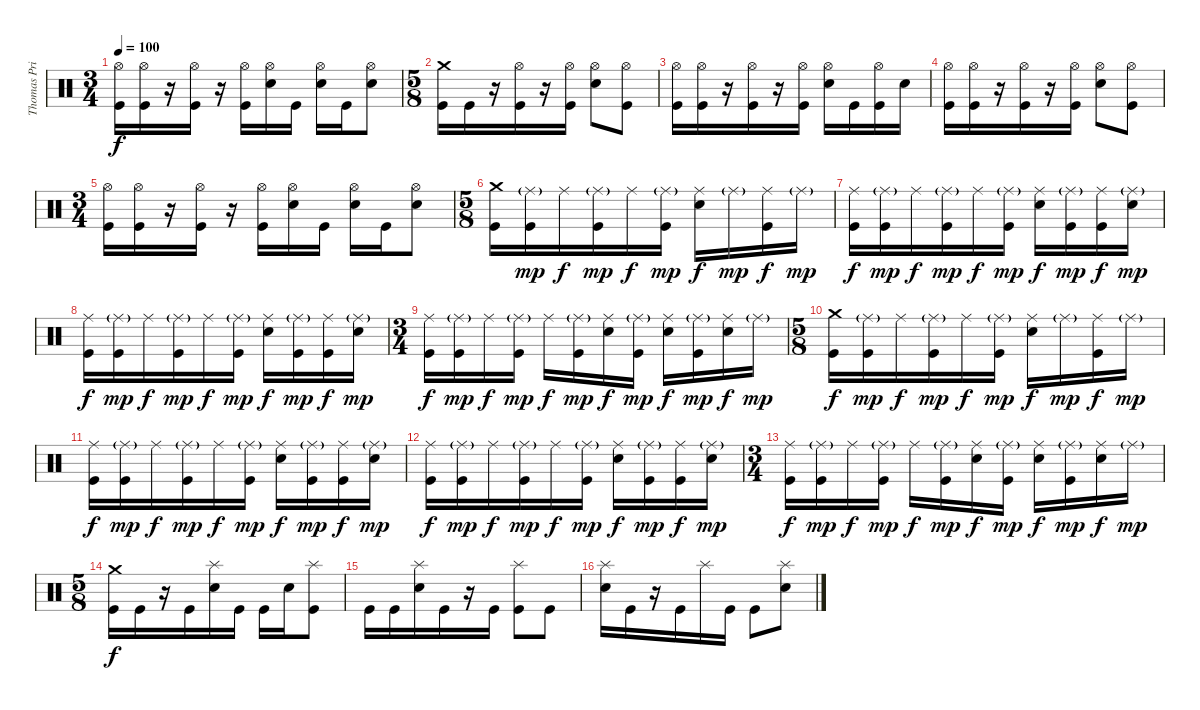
\track ("Thomas Pridgen [Drum]" "Thomas Pri") {instrument percussion}
\staff {score}
\articulation defaults
\ts (3 4)
\tempo 100
\clef neutral
\ks c
("Hi-Hat (open)" "Kick (hit)").16{dy f} ("Hi-Hat (open)" "Kick (hit)").16 r.16 ("Hi-Hat (open)" "Kick (hit)").16 r.16 ("Hi-Hat (open)" "Kick (hit)").16 ("Hi-Hat (open)" "Electric Snare (hit)").16 "Kick (hit)".16 ("Hi-Hat (open)" "Electric Snare (hit)").16 "Kick (hit)".16 ("Hi-Hat (open)" "Electric Snare (hit)").8 |
\ts (5 8)
("Crash medium (hit)" "Kick (hit)").16 "Kick (hit)".16 r.16 ("Hi-Hat (open)" "Kick (hit)").16 r.16 ("Hi-Hat (open)" "Kick (hit)").16 ("Hi-Hat (open)" "Electric Snare (hit)").8 ("Hi-Hat (open)" "Kick (hit)").8 |
("Hi-Hat (open)" "Kick (hit)").16 ("Hi-Hat (open)" "Kick (hit)").16 r.16 ("Hi-Hat (open)" "Kick (hit)").16 r.16 ("Hi-Hat (open)" "Kick (hit)").16 ("Hi-Hat (open)" "Electric Snare (hit)").16 "Kick (hit)".16 ("Hi-Hat (open)" "Kick (hit)").16 "Electric Snare (hit)".16 |
("Hi-Hat (open)" "Kick (hit)").16 ("Hi-Hat (open)" "Kick (hit)").16 r.16 ("Hi-Hat (open)" "Kick (hit)").16 r.16 ("Hi-Hat (open)" "Kick (hit)").16 ("Hi-Hat (open)" "Electric Snare (hit)").8 ("Hi-Hat (open)" "Kick (hit)").8 |
\ts (3 4)
("Hi-Hat (open)" "Kick (hit)").16 ("Hi-Hat (open)" "Kick (hit)").16 r.16 ("Hi-Hat (open)" "Kick (hit)").16 r.16 ("Hi-Hat (open)" "Kick (hit)").16 ("Hi-Hat (open)" "Electric Snare (hit)").16 "Kick (hit)".16 ("Hi-Hat (open)" "Electric Snare (hit)").16 "Kick (hit)".16 ("Hi-Hat (open)" "Electric Snare (hit)").8 |
\ts (5 8)
("Crash medium (hit)" "Kick (hit)").16 ("Ride (middle)"{g} "Kick (hit)").16{dy mp} "Ride (middle)".16{dy f} ("Ride (middle)"{g} "Kick (hit)").16{dy mp} "Ride (middle)".16{dy f} ("Ride (middle)"{g} "Kick (hit)").16{dy mp} ("Ride (middle)" "Electric Snare (hit)").16{dy f} "Ride (middle)"{g}.16{dy mp} ("Ride (middle)" "Kick (hit)").16{dy f} "Ride (middle)"{g}.16{dy mp} |
("Ride (middle)" "Kick (hit)").16{dy f} ("Ride (middle)"{g} "Kick (hit)").16{dy mp} "Ride (middle)".16{dy f} ("Ride (middle)"{g} "Kick (hit)").16{dy mp} "Ride (middle)".16{dy f} ("Ride (middle)"{g} "Kick (hit)").16{dy mp} ("Ride (middle)" "Electric Snare (hit)").16{dy f} ("Ride (middle)"{g} "Kick (hit)").16{dy mp} ("Ride (middle)" "Kick (hit)").16{dy f} ("Ride (middle)"{g} "Electric Snare (hit)").16{dy mp} |
("Ride (middle)" "Kick (hit)").16{dy f} ("Ride (middle)"{g} "Kick (hit)").16{dy mp} "Ride (middle)".16{dy f} ("Ride (middle)"{g} "Kick (hit)").16{dy mp} "Ride (middle)".16{dy f} ("Ride (middle)"{g} "Kick (hit)").16{dy mp} ("Ride (middle)" "Electric Snare (hit)").16{dy f} ("Ride (middle)"{g} "Kick (hit)").16{dy mp} ("Ride (middle)" "Kick (hit)").16{dy f} ("Ride (middle)"{g} "Electric Snare (hit)").16{dy mp} |
\ts (3 4)
("Ride (middle)" "Kick (hit)").16{dy f} ("Ride (middle)"{g} "Kick (hit)").16{dy mp} "Ride (middle)".16{dy f} ("Ride (middle)"{g} "Kick (hit)").16{dy mp} "Ride (middle)".16{dy f} ("Ride (middle)"{g} "Kick (hit)").16{dy mp} ("Ride (middle)" "Electric Snare (hit)").16{dy f} ("Ride (middle)"{g} "Kick (hit)").16{dy mp} ("Ride (middle)" "Electric Snare (hit)").16{dy f} ("Ride (middle)"{g} "Kick (hit)").16{dy mp} ("Ride (middle)" "Electric Snare (hit)").16{dy f} "Ride (middle)"{g}.16{dy mp} |
\ts (5 8)
("Crash medium (hit)" "Kick (hit)").16{dy f} ("Ride (middle)"{g} "Kick (hit)").16{dy mp} "Ride (middle)".16{dy f} ("Ride (middle)"{g} "Kick (hit)").16{dy mp} "Ride (middle)".16{dy f} ("Ride (middle)"{g} "Kick (hit)").16{dy mp} ("Ride (middle)" "Electric Snare (hit)").16{dy f} "Ride (middle)"{g}.16{dy mp} ("Ride (middle)" "Kick (hit)").16{dy f} "Ride (middle)"{g}.16{dy mp} |
("Ride (middle)" "Kick (hit)").16{dy f} ("Ride (middle)"{g} "Kick (hit)").16{dy mp} "Ride (middle)".16{dy f} ("Ride (middle)"{g} "Kick (hit)").16{dy mp} "Ride (middle)".16{dy f} ("Ride (middle)"{g} "Kick (hit)").16{dy mp} ("Ride (middle)" "Electric Snare (hit)").16{dy f} ("Ride (middle)"{g} "Kick (hit)").16{dy mp} ("Ride (middle)" "Kick (hit)").16{dy f} ("Ride (middle)"{g} "Electric Snare (hit)").16{dy mp} |
("Ride (middle)" "Kick (hit)").16{dy f} ("Ride (middle)"{g} "Kick (hit)").16{dy mp} "Ride (middle)".16{dy f} ("Ride (middle)"{g} "Kick (hit)").16{dy mp} "Ride (middle)".16{dy f} ("Ride (middle)"{g} "Kick (hit)").16{dy mp} ("Ride (middle)" "Electric Snare (hit)").16{dy f} ("Ride (middle)"{g} "Kick (hit)").16{dy mp} ("Ride (middle)" "Kick (hit)").16{dy f} ("Ride (middle)"{g} "Electric Snare (hit)").16{dy mp} |
\ts (3 4)
("Ride (middle)" "Kick (hit)").16{dy f} ("Ride (middle)"{g} "Kick (hit)").16{dy mp} "Ride (middle)".16{dy f} ("Ride (middle)"{g} "Kick (hit)").16{dy mp} "Ride (middle)".16{dy f} ("Ride (middle)"{g} "Kick (hit)").16{dy mp} ("Ride (middle)" "Electric Snare (hit)").16{dy f} ("Ride (middle)"{g} "Kick (hit)").16{dy mp} ("Ride (middle)" "Electric Snare (hit)").16{dy f} ("Ride (middle)"{g} "Kick (hit)").16{dy mp} ("Ride (middle)" "Electric Snare (hit)").16{dy f} "Ride (middle)"{g}.16{dy mp} |
\ts (5 8)
("Crash medium (hit)" "Kick (hit)").16{dy f} "Kick (hit)".16 r.16 "Kick (hit)".16 ("Splash (hit)" "Electric Snare (hit)").16 "Kick (hit)".16 "Kick (hit)".16 "Electric Snare (hit)".16 ("Splash (hit)" "Kick (hit)").8 |
"Kick (hit)".16 "Kick (hit)".16 ("Splash (hit)" "Electric Snare (hit)").16 "Kick (hit)".16 r.16 "Kick (hit)".16 ("Splash (hit)" "Kick (hit)").8 "Kick (hit)".8 |
("Splash (hit)" "Electric Snare (hit)").16 "Kick (hit)".16 r.16 "Kick (hit)".16 "Splash (hit)".16 "Kick (hit)".16 "Kick (hit)".8 ("Splash (hit)" "Electric Snare (hit)").8
